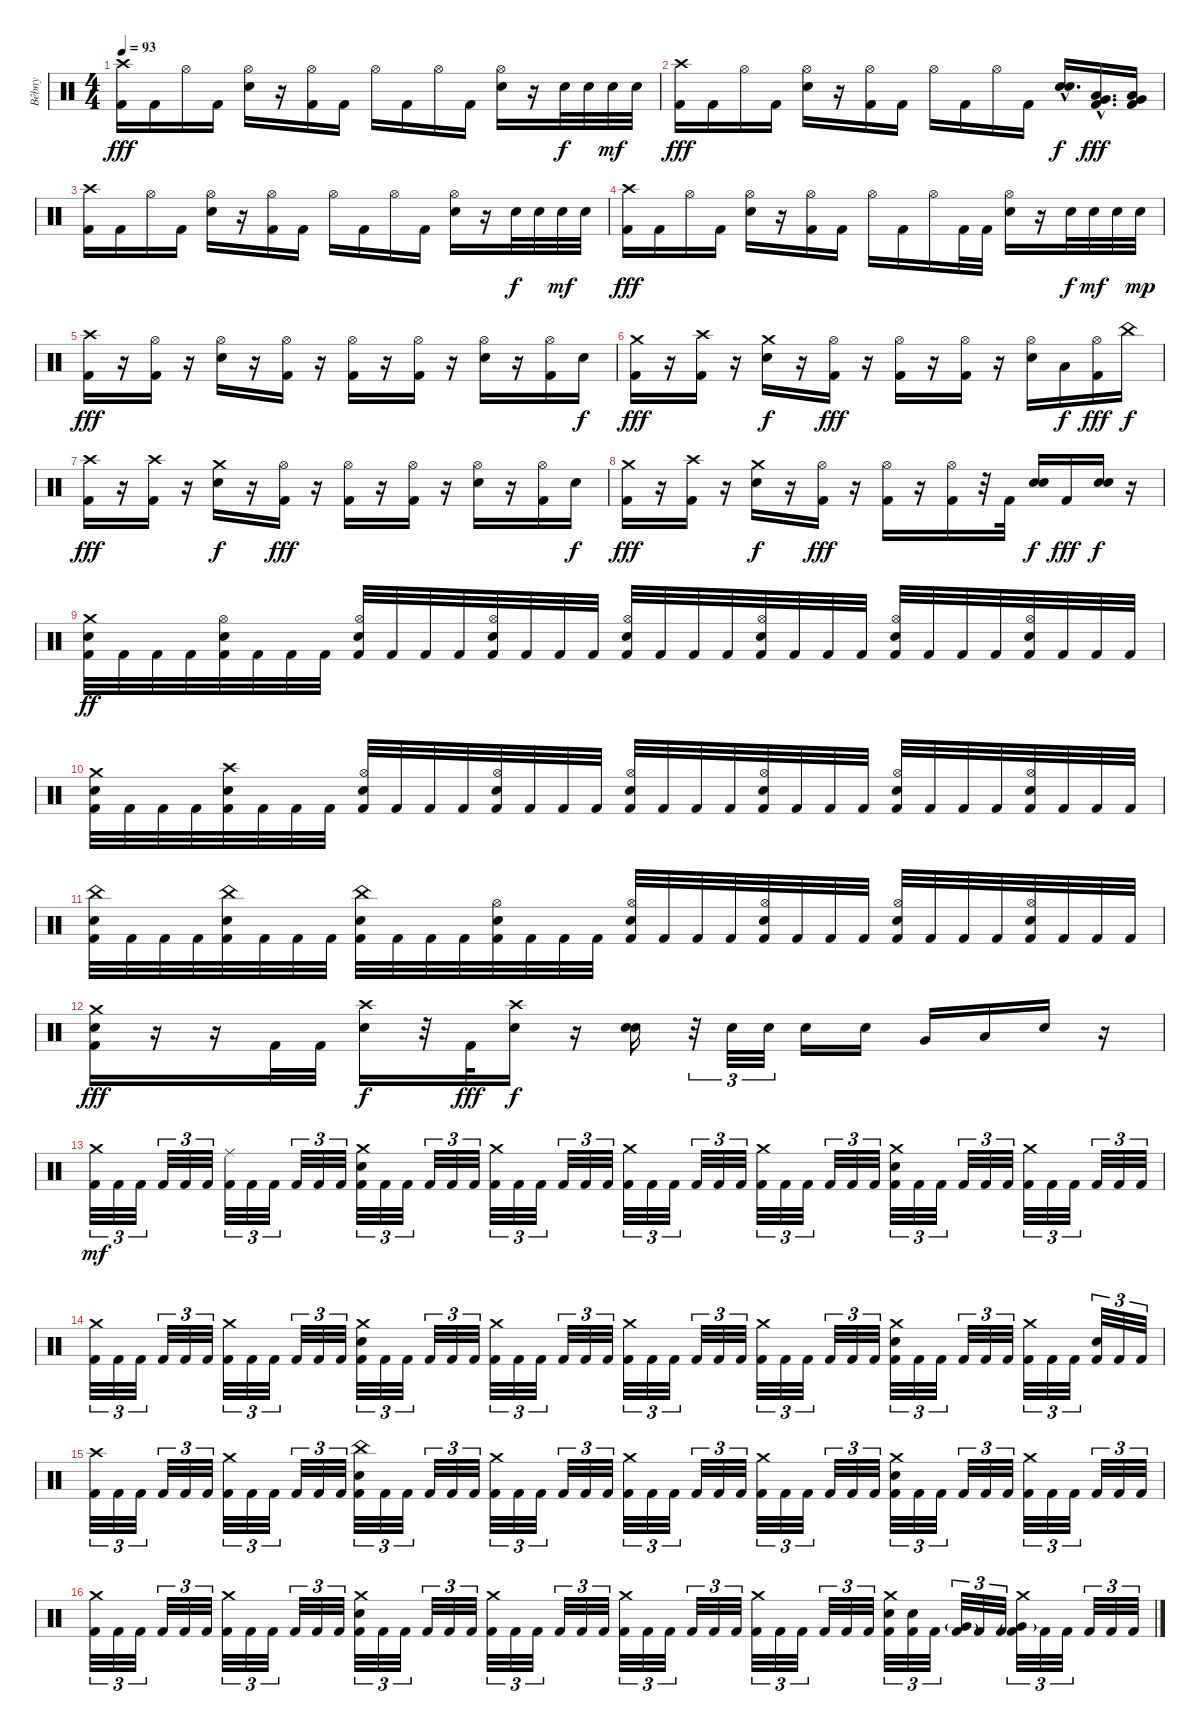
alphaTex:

\track ("Bêbny" "Bêbny") {instrument percussion}
\staff {score}
\articulation defaults
\ts (4 4)
\tempo 93
\clef neutral
\ks c
("Crash high (hit)" "Kick (hit) 2").16{dy fff} "Kick (hit) 2".16 "Hi-Hat (open)".16 "Kick (hit) 2".16 ("Hi-Hat (open)" "Electric Snare (hit)").16 r.16 ("Hi-Hat (open)" "Kick (hit) 2").16 "Kick (hit) 2".16 "Hi-Hat (open)".16 "Kick (hit) 2".16 "Hi-Hat (open)".16 "Kick (hit) 2".16 ("Hi-Hat (open)" "Electric Snare (hit)").16 r.16 "Electric Snare (hit)".32{dy f} "Electric Snare (hit)".32 "Electric Snare (hit)".32{dy mf} "Electric Snare (hit)".32 |
("Crash high (hit)" "Kick (hit) 2").16{dy fff} "Kick (hit) 2".16 "Hi-Hat (open)".16 "Kick (hit) 2".16 ("Hi-Hat (open)" "Electric Snare (hit)").16 r.16 ("Hi-Hat (open)" "Kick (hit) 2").16 "Kick (hit) 2".16 "Hi-Hat (open)".16 "Kick (hit) 2".16 "Hi-Hat (open)".16 "Kick (hit) 2".16 ("Electric Snare (hit)"{hac} "Electric Snare (hit)"{hac}).16{d bd 120 dy f} ("Very Low Tom (hit)"{hac} "Low Floor Tom (hit)"{hac} "Kick (hit) 2"{hac}).16{d dy fff} ("Very Low Tom (hit)" "Low Floor Tom (hit)" "Kick (hit) 2").16 |
("Crash high (hit)" "Kick (hit) 2").16 "Kick (hit) 2".16 "Hi-Hat (open)".16 "Kick (hit) 2".16 ("Hi-Hat (open)" "Electric Snare (hit)").16 r.16 ("Hi-Hat (open)" "Kick (hit) 2").16 "Kick (hit) 2".16 "Hi-Hat (open)".16 "Kick (hit) 2".16 "Hi-Hat (open)".16 "Kick (hit) 2".16 ("Hi-Hat (open)" "Electric Snare (hit)").16 r.16 "Electric Snare (hit)".32{dy f} "Electric Snare (hit)".32 "Electric Snare (hit)".32{dy mf} "Electric Snare (hit)".32 |
("Crash high (hit)" "Kick (hit) 2").16{dy fff} "Kick (hit) 2".16 "Hi-Hat (open)".16 "Kick (hit) 2".16 ("Hi-Hat (open)" "Electric Snare (hit)").16 r.16 ("Hi-Hat (open)" "Kick (hit) 2").16 "Kick (hit) 2".16 "Hi-Hat (open)".16 "Kick (hit) 2".16 "Hi-Hat (open)".16 "Kick (hit) 2".32 "Kick (hit) 2".32 ("Hi-Hat (open)" "Electric Snare (hit)").16 r.16 "Electric Snare (hit)".32{dy f} "Electric Snare (hit)".32{dy mf} "Electric Snare (hit)".32 "Electric Snare (hit)".32{dy mp} |
("Crash high (hit)" "Kick (hit) 2").16{dy fff} r.16 ("Hi-Hat (open)" "Kick (hit) 2").16 r.16 ("Hi-Hat (open)" "Electric Snare (hit)").16 r.16 ("Hi-Hat (open)" "Kick (hit) 2").16 r.16 ("Hi-Hat (open)" "Kick (hit) 2").16 r.16 ("Hi-Hat (open)" "Kick (hit) 2").16 r.16 ("Hi-Hat (open)" "Electric Snare (hit)").16 r.16 ("Hi-Hat (open)" "Kick (hit) 2").16 "Electric Snare (hit)".16{dy f} |
("Crash medium (hit)" "Kick (hit) 2").16{dy fff} r.16 ("Crash high (hit)" "Kick (hit) 2").16 r.16 ("Crash medium (hit)" "Electric Snare (hit)").16{dy f} r.16 ("Hi-Hat (open)" "Kick (hit) 2").16{dy fff} r.16 ("Hi-Hat (open)" "Kick (hit) 2").16 r.16 ("Hi-Hat (open)" "Kick (hit) 2").16 r.16 ("Hi-Hat (open)" "Electric Snare (hit)").16 "Low Tom (hit)".16{dy f} ("Hi-Hat (open)" "Kick (hit) 2").16{dy fff} "China (hit)".16{dy f} |
("Crash high (hit)" "Kick (hit) 2").16{dy fff} r.16 ("Crash high (hit)" "Kick (hit) 2").16 r.16 ("Crash medium (hit)" "Electric Snare (hit)").16{dy f} r.16 ("Hi-Hat (open)" "Kick (hit) 2").16{dy fff} r.16 ("Hi-Hat (open)" "Kick (hit) 2").16 r.16 ("Hi-Hat (open)" "Kick (hit) 2").16 r.16 ("Hi-Hat (open)" "Electric Snare (hit)").16 r.16 ("Hi-Hat (open)" "Kick (hit) 2").16 "Electric Snare (hit)".16{dy f} |
("Crash medium (hit)" "Kick (hit) 2").16{dy fff} r.16 ("Crash high (hit)" "Kick (hit) 2").16 r.16 ("Crash medium (hit)" "Electric Snare (hit)").16{dy f} r.16 ("Hi-Hat (open)" "Kick (hit) 2").16{dy fff} r.16 ("Hi-Hat (open)" "Kick (hit) 2").16 r.16 ("Hi-Hat (open)" "Kick (hit) 2").16 r.32 "Kick (hit) 2".32 ("Electric Snare (hit)" "Electric Snare (hit)").16{bd 240 dy f} "Kick (hit) 2".16{dy fff} ("Electric Snare (hit)" "Electric Snare (hit)").16{bd 60 dy f} r.16 |
("Crash medium (hit)" "Electric Snare (hit)" "Kick (hit) 2").32{dy ff} "Kick (hit) 2".32 "Kick (hit) 2".32 "Kick (hit) 2".32 ("Hi-Hat (open)" "Electric Snare (hit)" "Kick (hit) 2").32 "Kick (hit) 2".32 "Kick (hit) 2".32 "Kick (hit) 2".32 ("Hi-Hat (open)" "Electric Snare (hit)" "Kick (hit) 2").32 "Kick (hit) 2".32 "Kick (hit) 2".32 "Kick (hit) 2".32 ("Hi-Hat (open)" "Electric Snare (hit)" "Kick (hit) 2").32 "Kick (hit) 2".32 "Kick (hit) 2".32 "Kick (hit) 2".32 ("Hi-Hat (open)" "Electric Snare (hit)" "Kick (hit) 2").32 "Kick (hit) 2".32 "Kick (hit) 2".32 "Kick (hit) 2".32 ("Hi-Hat (open)" "Electric Snare (hit)" "Kick (hit) 2").32 "Kick (hit) 2".32 "Kick (hit) 2".32 "Kick (hit) 2".32 ("Hi-Hat (open)" "Electric Snare (hit)" "Kick (hit) 2").32 "Kick (hit) 2".32 "Kick (hit) 2".32 "Kick (hit) 2".32 ("Hi-Hat (open)" "Electric Snare (hit)" "Kick (hit) 2").32 "Kick (hit) 2".32 "Kick (hit) 2".32 "Kick (hit) 2".32 |
("Crash medium (hit)" "Electric Snare (hit)" "Kick (hit) 2").32 "Kick (hit) 2".32 "Kick (hit) 2".32 "Kick (hit) 2".32 ("Crash high (hit)" "Electric Snare (hit)" "Kick (hit) 2").32 "Kick (hit) 2".32 "Kick (hit) 2".32 "Kick (hit) 2".32 ("Hi-Hat (open)" "Electric Snare (hit)" "Kick (hit) 2").32 "Kick (hit) 2".32 "Kick (hit) 2".32 "Kick (hit) 2".32 ("Hi-Hat (open)" "Electric Snare (hit)" "Kick (hit) 2").32 "Kick (hit) 2".32 "Kick (hit) 2".32 "Kick (hit) 2".32 ("Hi-Hat (open)" "Electric Snare (hit)" "Kick (hit) 2").32 "Kick (hit) 2".32 "Kick (hit) 2".32 "Kick (hit) 2".32 ("Hi-Hat (open)" "Electric Snare (hit)" "Kick (hit) 2").32 "Kick (hit) 2".32 "Kick (hit) 2".32 "Kick (hit) 2".32 ("Hi-Hat (open)" "Electric Snare (hit)" "Kick (hit) 2").32 "Kick (hit) 2".32 "Kick (hit) 2".32 "Kick (hit) 2".32 ("Hi-Hat (open)" "Electric Snare (hit)" "Kick (hit) 2").32 "Kick (hit) 2".32 "Kick (hit) 2".32 "Kick (hit) 2".32 |
("China (hit)" "Electric Snare (hit)" "Kick (hit) 2").32 "Kick (hit) 2".32 "Kick (hit) 2".32 "Kick (hit) 2".32 ("China (hit)" "Electric Snare (hit)" "Kick (hit) 2").32 "Kick (hit) 2".32 "Kick (hit) 2".32 "Kick (hit) 2".32 ("China (hit)" "Electric Snare (hit)" "Kick (hit) 2").32 "Kick (hit) 2".32 "Kick (hit) 2".32 "Kick (hit) 2".32 ("Hi-Hat (open)" "Electric Snare (hit)" "Kick (hit) 2").32 "Kick (hit) 2".32 "Kick (hit) 2".32 "Kick (hit) 2".32 ("Hi-Hat (open)" "Electric Snare (hit)" "Kick (hit) 2").32 "Kick (hit) 2".32 "Kick (hit) 2".32 "Kick (hit) 2".32 ("Hi-Hat (open)" "Electric Snare (hit)" "Kick (hit) 2").32 "Kick (hit) 2".32 "Kick (hit) 2".32 "Kick (hit) 2".32 ("Hi-Hat (open)" "Electric Snare (hit)" "Kick (hit) 2").32 "Kick (hit) 2".32 "Kick (hit) 2".32 "Kick (hit) 2".32 ("Hi-Hat (open)" "Electric Snare (hit)" "Kick (hit) 2").32 "Kick (hit) 2".32 "Kick (hit) 2".32 "Kick (hit) 2".32 |
("Crash medium (hit)" "Electric Snare (hit)" "Kick (hit) 2").16{dy fff} r.16 r.16 "Kick (hit) 2".32 "Kick (hit) 2".32 ("Crash high (hit)" "Electric Snare (hit)").16{dy f} r.32 "Kick (hit) 2".32{dy fff} ("Crash high (hit)" "Electric Snare (hit)").16{dy f} r.16 ("Electric Snare (hit)" "Electric Snare (hit)").16 r.32{tu (3 2)} "Electric Snare (hit)".32{tu (3 2)} "Electric Snare (hit)".32{tu (3 2)} "Electric Snare (hit)".16 "Electric Snare (hit)".16 "Very Low Tom (hit)".16 "Low Floor Tom (hit)".16 "Electric Snare (hit)".16 r.16 |
("Crash medium (hit)" "Kick (hit) 2").32{tu (3 2) dy mf} "Kick (hit) 2".32{tu (3 2)} "Kick (hit) 2".32{tu (3 2)} "Kick (hit) 2".32{tu (3 2)} "Kick (hit) 2".32{tu (3 2)} "Kick (hit) 2".32{tu (3 2)} ("Ride (middle)" "Kick (hit) 2").32{tu (3 2)} "Kick (hit) 2".32{tu (3 2)} "Kick (hit) 2".32{tu (3 2)} "Kick (hit) 2".32{tu (3 2)} "Kick (hit) 2".32{tu (3 2)} "Kick (hit) 2".32{tu (3 2)} ("Crash medium (hit)" "Electric Snare (hit)" "Kick (hit) 2").32{tu (3 2)} "Kick (hit) 2".32{tu (3 2)} "Kick (hit) 2".32{tu (3 2)} "Kick (hit) 2".32{tu (3 2)} "Kick (hit) 2".32{tu (3 2)} "Kick (hit) 2".32{tu (3 2)} ("Crash medium (hit)" "Kick (hit) 2").32{tu (3 2)} "Kick (hit) 2".32{tu (3 2)} "Kick (hit) 2".32{tu (3 2)} "Kick (hit) 2".32{tu (3 2)} "Kick (hit) 2".32{tu (3 2)} "Kick (hit) 2".32{tu (3 2)} ("Crash medium (hit)" "Kick (hit) 2").32{tu (3 2)} "Kick (hit) 2".32{tu (3 2)} "Kick (hit) 2".32{tu (3 2)} "Kick (hit) 2".32{tu (3 2)} "Kick (hit) 2".32{tu (3 2)} "Kick (hit) 2".32{tu (3 2)} ("Crash medium (hit)" "Kick (hit) 2").32{tu (3 2)} "Kick (hit) 2".32{tu (3 2)} "Kick (hit) 2".32{tu (3 2)} "Kick (hit) 2".32{tu (3 2)} "Kick (hit) 2".32{tu (3 2)} "Kick (hit) 2".32{tu (3 2)} ("Crash medium (hit)" "Electric Snare (hit)" "Kick (hit) 2").32{tu (3 2)} "Kick (hit) 2".32{tu (3 2)} "Kick (hit) 2".32{tu (3 2)} "Kick (hit) 2".32{tu (3 2)} "Kick (hit) 2".32{tu (3 2)} "Kick (hit) 2".32{tu (3 2)} ("Crash medium (hit)" "Kick (hit) 2").32{tu (3 2)} "Kick (hit) 2".32{tu (3 2)} "Kick (hit) 2".32{tu (3 2)} "Kick (hit) 2".32{tu (3 2)} "Kick (hit) 2".32{tu (3 2)} "Kick (hit) 2".32{tu (3 2)} |
("Crash medium (hit)" "Kick (hit) 2").32{tu (3 2)} "Kick (hit) 2".32{tu (3 2)} "Kick (hit) 2".32{tu (3 2)} "Kick (hit) 2".32{tu (3 2)} "Kick (hit) 2".32{tu (3 2)} "Kick (hit) 2".32{tu (3 2)} ("Crash medium (hit)" "Kick (hit) 2").32{tu (3 2)} "Kick (hit) 2".32{tu (3 2)} "Kick (hit) 2".32{tu (3 2)} "Kick (hit) 2".32{tu (3 2)} "Kick (hit) 2".32{tu (3 2)} "Kick (hit) 2".32{tu (3 2)} ("Crash medium (hit)" "Electric Snare (hit)" "Kick (hit) 2").32{tu (3 2)} "Kick (hit) 2".32{tu (3 2)} "Kick (hit) 2".32{tu (3 2)} "Kick (hit) 2".32{tu (3 2)} "Kick (hit) 2".32{tu (3 2)} "Kick (hit) 2".32{tu (3 2)} ("Crash medium (hit)" "Kick (hit) 2").32{tu (3 2)} "Kick (hit) 2".32{tu (3 2)} "Kick (hit) 2".32{tu (3 2)} "Kick (hit) 2".32{tu (3 2)} "Kick (hit) 2".32{tu (3 2)} "Kick (hit) 2".32{tu (3 2)} ("Crash medium (hit)" "Kick (hit) 2").32{tu (3 2)} "Kick (hit) 2".32{tu (3 2)} "Kick (hit) 2".32{tu (3 2)} "Kick (hit) 2".32{tu (3 2)} "Kick (hit) 2".32{tu (3 2)} "Kick (hit) 2".32{tu (3 2)} ("Crash medium (hit)" "Kick (hit) 2").32{tu (3 2)} "Kick (hit) 2".32{tu (3 2)} "Kick (hit) 2".32{tu (3 2)} "Kick (hit) 2".32{tu (3 2)} "Kick (hit) 2".32{tu (3 2)} "Kick (hit) 2".32{tu (3 2)} ("Crash medium (hit)" "Electric Snare (hit)" "Kick (hit) 2").32{tu (3 2)} "Kick (hit) 2".32{tu (3 2)} "Kick (hit) 2".32{tu (3 2)} "Kick (hit) 2".32{tu (3 2)} "Kick (hit) 2".32{tu (3 2)} "Kick (hit) 2".32{tu (3 2)} ("Crash medium (hit)" "Kick (hit) 2").32{tu (3 2)} "Kick (hit) 2".32{tu (3 2)} "Kick (hit) 2".32{tu (3 2)} ("Electric Snare (hit)" "Kick (hit) 2").32{tu (3 2)} "Kick (hit) 2".32{tu (3 2)} "Kick (hit) 2".32{tu (3 2)} |
("Crash high (hit)" "Kick (hit) 2").32{tu (3 2)} "Kick (hit) 2".32{tu (3 2)} "Kick (hit) 2".32{tu (3 2)} "Kick (hit) 2".32{tu (3 2)} "Kick (hit) 2".32{tu (3 2)} "Kick (hit) 2".32{tu (3 2)} ("Crash medium (hit)" "Kick (hit) 2").32{tu (3 2)} "Kick (hit) 2".32{tu (3 2)} "Kick (hit) 2".32{tu (3 2)} "Kick (hit) 2".32{tu (3 2)} "Kick (hit) 2".32{tu (3 2)} "Kick (hit) 2".32{tu (3 2)} ("China (hit)" "Electric Snare (hit)" "Kick (hit) 2").32{tu (3 2)} "Kick (hit) 2".32{tu (3 2)} "Kick (hit) 2".32{tu (3 2)} "Kick (hit) 2".32{tu (3 2)} "Kick (hit) 2".32{tu (3 2)} "Kick (hit) 2".32{tu (3 2)} ("Crash medium (hit)" "Kick (hit) 2").32{tu (3 2)} "Kick (hit) 2".32{tu (3 2)} "Kick (hit) 2".32{tu (3 2)} "Kick (hit) 2".32{tu (3 2)} "Kick (hit) 2".32{tu (3 2)} "Kick (hit) 2".32{tu (3 2)} ("Crash medium (hit)" "Kick (hit) 2").32{tu (3 2)} "Kick (hit) 2".32{tu (3 2)} "Kick (hit) 2".32{tu (3 2)} "Kick (hit) 2".32{tu (3 2)} "Kick (hit) 2".32{tu (3 2)} "Kick (hit) 2".32{tu (3 2)} ("Crash medium (hit)" "Kick (hit) 2").32{tu (3 2)} "Kick (hit) 2".32{tu (3 2)} "Kick (hit) 2".32{tu (3 2)} "Kick (hit) 2".32{tu (3 2)} "Kick (hit) 2".32{tu (3 2)} "Kick (hit) 2".32{tu (3 2)} ("Crash medium (hit)" "Electric Snare (hit)" "Kick (hit) 2").32{tu (3 2)} "Kick (hit) 2".32{tu (3 2)} "Kick (hit) 2".32{tu (3 2)} "Kick (hit) 2".32{tu (3 2)} "Kick (hit) 2".32{tu (3 2)} "Kick (hit) 2".32{tu (3 2)} ("Crash medium (hit)" "Kick (hit) 2").32{tu (3 2)} "Kick (hit) 2".32{tu (3 2)} "Kick (hit) 2".32{tu (3 2)} "Kick (hit) 2".32{tu (3 2)} "Kick (hit) 2".32{tu (3 2)} "Kick (hit) 2".32{tu (3 2)} |
("Crash medium (hit)" "Kick (hit) 2").32{tu (3 2)} "Kick (hit) 2".32{tu (3 2)} "Kick (hit) 2".32{tu (3 2)} "Kick (hit) 2".32{tu (3 2)} "Kick (hit) 2".32{tu (3 2)} "Kick (hit) 2".32{tu (3 2)} ("Crash medium (hit)" "Kick (hit) 2").32{tu (3 2)} "Kick (hit) 2".32{tu (3 2)} "Kick (hit) 2".32{tu (3 2)} "Kick (hit) 2".32{tu (3 2)} "Kick (hit) 2".32{tu (3 2)} "Kick (hit) 2".32{tu (3 2)} ("Crash medium (hit)" "Electric Snare (hit)" "Kick (hit) 2").32{tu (3 2)} "Kick (hit) 2".32{tu (3 2)} "Kick (hit) 2".32{tu (3 2)} "Kick (hit) 2".32{tu (3 2)} "Kick (hit) 2".32{tu (3 2)} "Kick (hit) 2".32{tu (3 2)} ("Crash medium (hit)" "Kick (hit) 2").32{tu (3 2)} "Kick (hit) 2".32{tu (3 2)} "Kick (hit) 2".32{tu (3 2)} "Kick (hit) 2".32{tu (3 2)} "Kick (hit) 2".32{tu (3 2)} "Kick (hit) 2".32{tu (3 2)} ("Crash medium (hit)" "Kick (hit) 2").32{tu (3 2)} "Kick (hit) 2".32{tu (3 2)} "Kick (hit) 2".32{tu (3 2)} "Kick (hit) 2".32{tu (3 2)} "Kick (hit) 2".32{tu (3 2)} "Kick (hit) 2".32{tu (3 2)} ("Crash medium (hit)" "Kick (hit) 2").32{tu (3 2)} "Kick (hit) 2".32{tu (3 2)} "Kick (hit) 2".32{tu (3 2)} "Kick (hit) 2".32{tu (3 2)} "Kick (hit) 2".32{tu (3 2)} "Kick (hit) 2".32{tu (3 2)} ("Crash medium (hit)" "Electric Snare (hit)" "Kick (hit) 2").32{tu (3 2)} ("Electric Snare (hit)" "Kick (hit) 2").32{tu (3 2)} "Kick (hit) 2".32{tu (3 2)} ("Very Low Tom (hit)"{g} "Kick (hit) 2").32{tu (3 2)} "Kick (hit) 2".32{tu (3 2)} "Kick (hit) 2".32{tu (3 2)} ("Crash medium (hit)" "Very Low Tom (hit)"{g} "Kick (hit) 2").32{tu (3 2)} "Kick (hit) 2".32{tu (3 2)} "Kick (hit) 2".32{tu (3 2)} "Kick (hit) 2".32{tu (3 2)} "Kick (hit) 2".32{tu (3 2)} "Kick (hit) 2".32{tu (3 2)}
